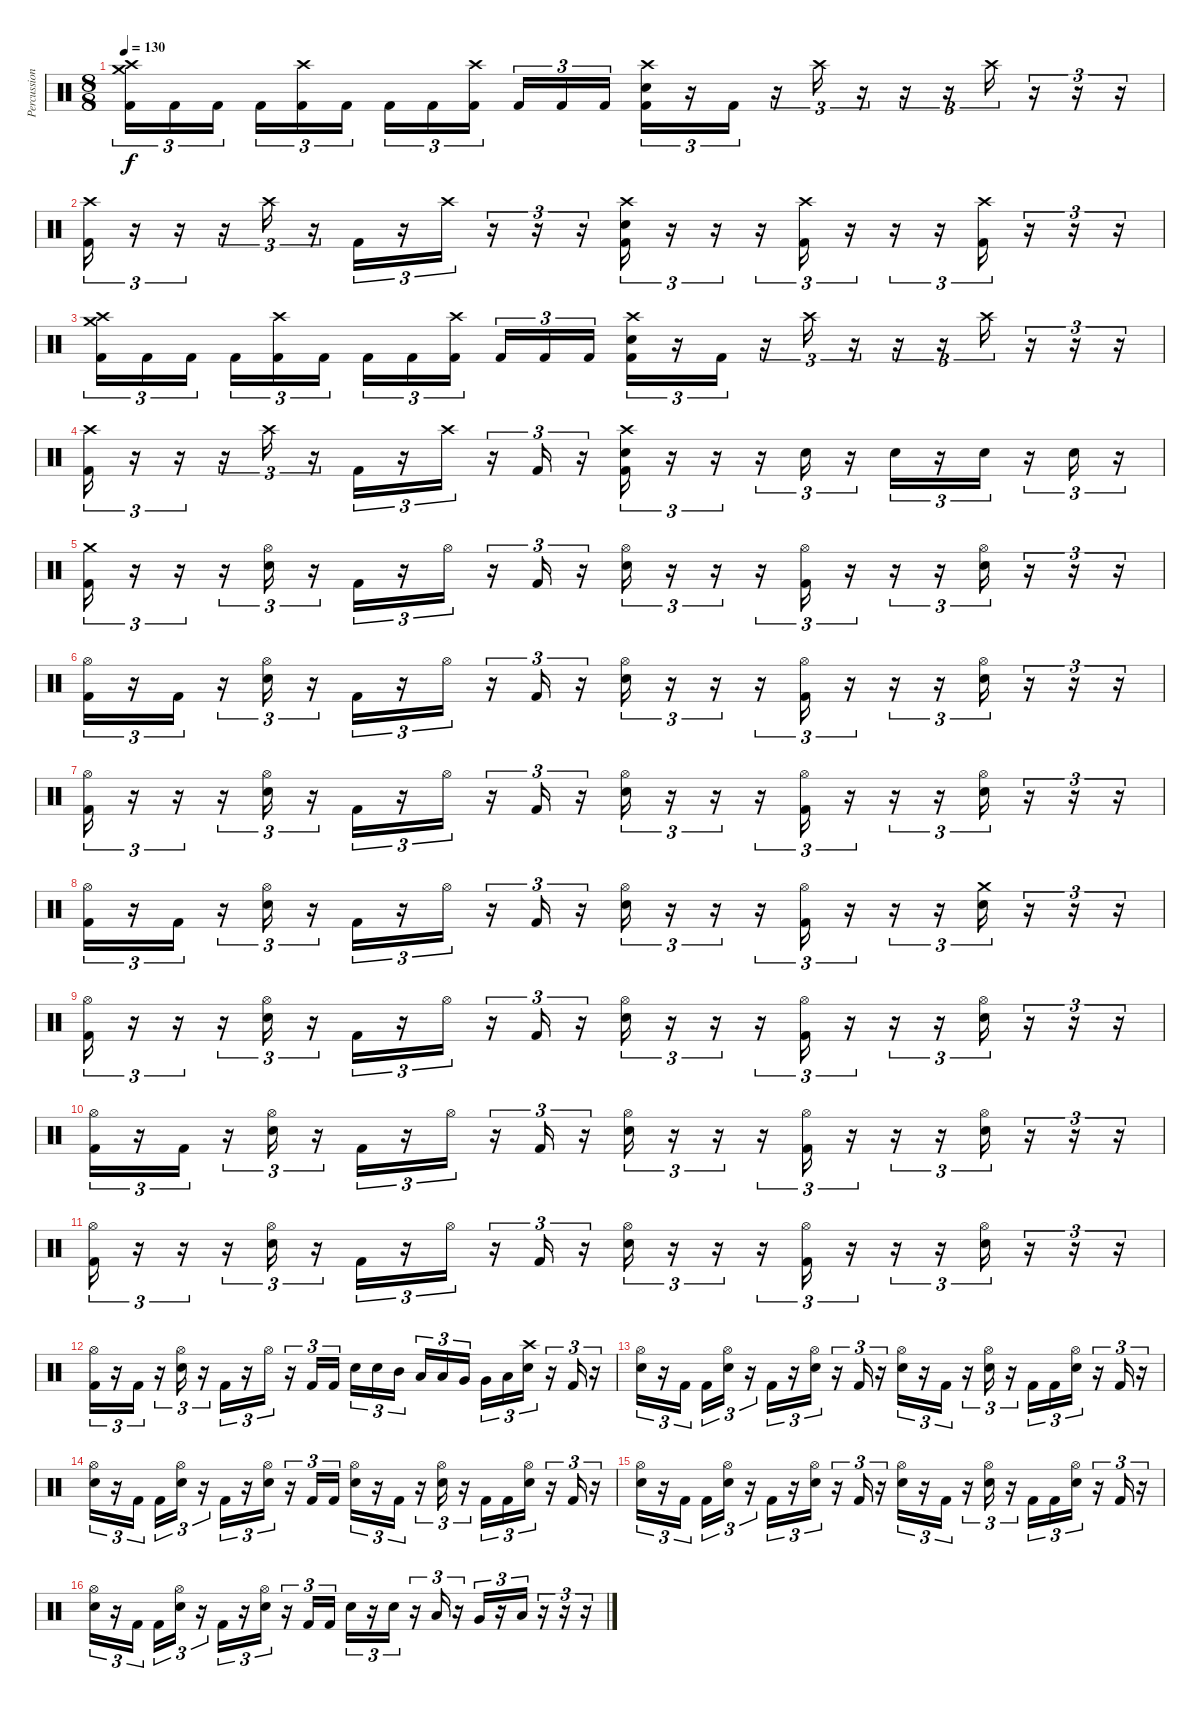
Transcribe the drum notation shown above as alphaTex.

\track ("Percussion" "Percussion") {instrument percussion}
\staff {score}
\articulation defaults
\ts (8 8)
\tempo 130
\clef neutral
\ks c
("Crash high (hit)" "Crash medium (hit)" "Kick (hit) 2").16{tu (3 2) dy f} "Kick (hit) 2".16{tu (3 2)} "Kick (hit) 2".16{tu (3 2)} "Kick (hit) 2".16{tu (3 2)} ("Crash high (hit)" "Kick (hit) 2").16{tu (3 2)} "Kick (hit) 2".16{tu (3 2)} "Kick (hit) 2".16{tu (3 2)} "Kick (hit) 2".16{tu (3 2)} ("Crash high (hit)" "Kick (hit) 2").16{tu (3 2)} "Kick (hit) 2".16{tu (3 2)} "Kick (hit) 2".16{tu (3 2)} "Kick (hit) 2".16{tu (3 2)} ("Crash high (hit)" "Snare (hit) 2" "Kick (hit) 2").16{tu (3 2)} r.16{tu (3 2)} "Kick (hit) 2".16{tu (3 2)} r.16{tu (3 2)} "Crash high (hit)".16{tu (3 2)} r.16{tu (3 2)} r.16{tu (3 2)} r.16{tu (3 2)} "Crash high (hit)".16{tu (3 2)} r.16{tu (3 2)} r.16{tu (3 2)} r.16{tu (3 2)} |
("Crash high (hit)" "Kick (hit) 2").16{tu (3 2)} r.16{tu (3 2)} r.16{tu (3 2)} r.16{tu (3 2)} "Crash high (hit)".16{tu (3 2)} r.16{tu (3 2)} "Kick (hit) 2".16{tu (3 2)} r.16{tu (3 2)} "Crash high (hit)".16{tu (3 2)} r.16{tu (3 2)} r.16{tu (3 2)} r.16{tu (3 2)} ("Crash high (hit)" "Snare (hit) 2" "Kick (hit) 2").16{tu (3 2)} r.16{tu (3 2)} r.16{tu (3 2)} r.16{tu (3 2)} ("Crash high (hit)" "Kick (hit) 2").16{tu (3 2)} r.16{tu (3 2)} r.16{tu (3 2)} r.16{tu (3 2)} ("Crash high (hit)" "Kick (hit) 2").16{tu (3 2)} r.16{tu (3 2)} r.16{tu (3 2)} r.16{tu (3 2)} |
("Crash high (hit)" "Crash medium (hit)" "Kick (hit) 2").16{tu (3 2)} "Kick (hit) 2".16{tu (3 2)} "Kick (hit) 2".16{tu (3 2)} "Kick (hit) 2".16{tu (3 2)} ("Crash high (hit)" "Kick (hit) 2").16{tu (3 2)} "Kick (hit) 2".16{tu (3 2)} "Kick (hit) 2".16{tu (3 2)} "Kick (hit) 2".16{tu (3 2)} ("Crash high (hit)" "Kick (hit) 2").16{tu (3 2)} "Kick (hit) 2".16{tu (3 2)} "Kick (hit) 2".16{tu (3 2)} "Kick (hit) 2".16{tu (3 2)} ("Crash high (hit)" "Snare (hit) 2" "Kick (hit) 2").16{tu (3 2)} r.16{tu (3 2)} "Kick (hit) 2".16{tu (3 2)} r.16{tu (3 2)} "Crash high (hit)".16{tu (3 2)} r.16{tu (3 2)} r.16{tu (3 2)} r.16{tu (3 2)} "Crash high (hit)".16{tu (3 2)} r.16{tu (3 2)} r.16{tu (3 2)} r.16{tu (3 2)} |
("Crash high (hit)" "Kick (hit) 2").16{tu (3 2)} r.16{tu (3 2)} r.16{tu (3 2)} r.16{tu (3 2)} "Crash high (hit)".16{tu (3 2)} r.16{tu (3 2)} "Kick (hit) 2".16{tu (3 2)} r.16{tu (3 2)} "Crash high (hit)".16{tu (3 2)} r.16{tu (3 2)} "Kick (hit) 2".16{tu (3 2)} r.16{tu (3 2)} ("Crash high (hit)" "Snare (hit) 2" "Kick (hit) 2").16{tu (3 2)} r.16{tu (3 2)} r.16{tu (3 2)} r.16{tu (3 2)} "Snare (hit) 2".16{tu (3 2)} r.16{tu (3 2)} "Snare (hit) 2".16{tu (3 2)} r.16{tu (3 2)} "Snare (hit) 2".16{tu (3 2)} r.16{tu (3 2)} "Snare (hit) 2".16{tu (3 2)} r.16{tu (3 2)} |
("Crash medium (hit)" "Kick (hit) 2").16{tu (3 2)} r.16{tu (3 2)} r.16{tu (3 2)} r.16{tu (3 2)} ("Hi-Hat (open)" "Snare (hit) 2").16{tu (3 2)} r.16{tu (3 2)} "Kick (hit) 2".16{tu (3 2)} r.16{tu (3 2)} "Hi-Hat (open)".16{tu (3 2)} r.16{tu (3 2)} "Kick (hit) 2".16{tu (3 2)} r.16{tu (3 2)} ("Hi-Hat (open)" "Snare (hit) 2").16{tu (3 2)} r.16{tu (3 2)} r.16{tu (3 2)} r.16{tu (3 2)} ("Hi-Hat (open)" "Kick (hit) 2").16{tu (3 2)} r.16{tu (3 2)} r.16{tu (3 2)} r.16{tu (3 2)} ("Hi-Hat (open)" "Snare (hit) 2").16{tu (3 2)} r.16{tu (3 2)} r.16{tu (3 2)} r.16{tu (3 2)} |
("Hi-Hat (open)" "Kick (hit) 2").16{tu (3 2)} r.16{tu (3 2)} "Kick (hit) 2".16{tu (3 2)} r.16{tu (3 2)} ("Hi-Hat (open)" "Snare (hit) 2").16{tu (3 2)} r.16{tu (3 2)} "Kick (hit) 2".16{tu (3 2)} r.16{tu (3 2)} "Hi-Hat (open)".16{tu (3 2)} r.16{tu (3 2)} "Kick (hit) 2".16{tu (3 2)} r.16{tu (3 2)} ("Hi-Hat (open)" "Snare (hit) 2").16{tu (3 2)} r.16{tu (3 2)} r.16{tu (3 2)} r.16{tu (3 2)} ("Hi-Hat (open)" "Kick (hit) 2").16{tu (3 2)} r.16{tu (3 2)} r.16{tu (3 2)} r.16{tu (3 2)} ("Hi-Hat (open)" "Snare (hit) 2").16{tu (3 2)} r.16{tu (3 2)} r.16{tu (3 2)} r.16{tu (3 2)} |
("Hi-Hat (open)" "Kick (hit) 2").16{tu (3 2)} r.16{tu (3 2)} r.16{tu (3 2)} r.16{tu (3 2)} ("Hi-Hat (open)" "Snare (hit) 2").16{tu (3 2)} r.16{tu (3 2)} "Kick (hit) 2".16{tu (3 2)} r.16{tu (3 2)} "Hi-Hat (open)".16{tu (3 2)} r.16{tu (3 2)} "Kick (hit) 2".16{tu (3 2)} r.16{tu (3 2)} ("Hi-Hat (open)" "Snare (hit) 2").16{tu (3 2)} r.16{tu (3 2)} r.16{tu (3 2)} r.16{tu (3 2)} ("Hi-Hat (open)" "Kick (hit) 2").16{tu (3 2)} r.16{tu (3 2)} r.16{tu (3 2)} r.16{tu (3 2)} ("Hi-Hat (open)" "Snare (hit) 2").16{tu (3 2)} r.16{tu (3 2)} r.16{tu (3 2)} r.16{tu (3 2)} |
("Hi-Hat (open)" "Kick (hit) 2").16{tu (3 2)} r.16{tu (3 2)} "Kick (hit) 2".16{tu (3 2)} r.16{tu (3 2)} ("Hi-Hat (open)" "Snare (hit) 2").16{tu (3 2)} r.16{tu (3 2)} "Kick (hit) 2".16{tu (3 2)} r.16{tu (3 2)} "Hi-Hat (open)".16{tu (3 2)} r.16{tu (3 2)} "Kick (hit) 2".16{tu (3 2)} r.16{tu (3 2)} ("Hi-Hat (open)" "Snare (hit) 2").16{tu (3 2)} r.16{tu (3 2)} r.16{tu (3 2)} r.16{tu (3 2)} ("Hi-Hat (open)" "Kick (hit) 2").16{tu (3 2)} r.16{tu (3 2)} r.16{tu (3 2)} r.16{tu (3 2)} ("Crash medium (hit)" "Snare (hit) 2").16{tu (3 2)} r.16{tu (3 2)} r.16{tu (3 2)} r.16{tu (3 2)} |
("Hi-Hat (open)" "Kick (hit) 2").16{tu (3 2)} r.16{tu (3 2)} r.16{tu (3 2)} r.16{tu (3 2)} ("Hi-Hat (open)" "Snare (hit) 2").16{tu (3 2)} r.16{tu (3 2)} "Kick (hit) 2".16{tu (3 2)} r.16{tu (3 2)} "Hi-Hat (open)".16{tu (3 2)} r.16{tu (3 2)} "Kick (hit) 2".16{tu (3 2)} r.16{tu (3 2)} ("Hi-Hat (open)" "Snare (hit) 2").16{tu (3 2)} r.16{tu (3 2)} r.16{tu (3 2)} r.16{tu (3 2)} ("Hi-Hat (open)" "Kick (hit) 2").16{tu (3 2)} r.16{tu (3 2)} r.16{tu (3 2)} r.16{tu (3 2)} ("Hi-Hat (open)" "Snare (hit) 2").16{tu (3 2)} r.16{tu (3 2)} r.16{tu (3 2)} r.16{tu (3 2)} |
("Hi-Hat (open)" "Kick (hit) 2").16{tu (3 2)} r.16{tu (3 2)} "Kick (hit) 2".16{tu (3 2)} r.16{tu (3 2)} ("Hi-Hat (open)" "Snare (hit) 2").16{tu (3 2)} r.16{tu (3 2)} "Kick (hit) 2".16{tu (3 2)} r.16{tu (3 2)} "Hi-Hat (open)".16{tu (3 2)} r.16{tu (3 2)} "Kick (hit) 2".16{tu (3 2)} r.16{tu (3 2)} ("Hi-Hat (open)" "Snare (hit) 2").16{tu (3 2)} r.16{tu (3 2)} r.16{tu (3 2)} r.16{tu (3 2)} ("Hi-Hat (open)" "Kick (hit) 2").16{tu (3 2)} r.16{tu (3 2)} r.16{tu (3 2)} r.16{tu (3 2)} ("Hi-Hat (open)" "Snare (hit) 2").16{tu (3 2)} r.16{tu (3 2)} r.16{tu (3 2)} r.16{tu (3 2)} |
("Hi-Hat (open)" "Kick (hit) 2").16{tu (3 2)} r.16{tu (3 2)} r.16{tu (3 2)} r.16{tu (3 2)} ("Hi-Hat (open)" "Snare (hit) 2").16{tu (3 2)} r.16{tu (3 2)} "Kick (hit) 2".16{tu (3 2)} r.16{tu (3 2)} "Hi-Hat (open)".16{tu (3 2)} r.16{tu (3 2)} "Kick (hit) 2".16{tu (3 2)} r.16{tu (3 2)} ("Hi-Hat (open)" "Snare (hit) 2").16{tu (3 2)} r.16{tu (3 2)} r.16{tu (3 2)} r.16{tu (3 2)} ("Hi-Hat (open)" "Kick (hit) 2").16{tu (3 2)} r.16{tu (3 2)} r.16{tu (3 2)} r.16{tu (3 2)} ("Hi-Hat (open)" "Snare (hit) 2").16{tu (3 2)} r.16{tu (3 2)} r.16{tu (3 2)} r.16{tu (3 2)} |
("Hi-Hat (open)" "Kick (hit) 2").16{tu (3 2)} r.16{tu (3 2)} "Kick (hit) 2".16{tu (3 2)} r.16{tu (3 2)} ("Hi-Hat (open)" "Snare (hit) 2").16{tu (3 2)} r.16{tu (3 2)} "Kick (hit) 2".16{tu (3 2)} r.16{tu (3 2)} "Hi-Hat (open)".16{tu (3 2)} r.16{tu (3 2)} "Kick (hit) 2".16{tu (3 2)} "Kick (hit) 2".16{tu (3 2)} "Snare (hit) 2".16{tu (3 2)} "Snare (hit) 2".16{tu (3 2)} "Mid Tom (hit)".16{tu (3 2)} "Low Tom (hit)".16{tu (3 2)} "Low Tom (hit)".16{tu (3 2)} "Very Low Tom (hit)".16{tu (3 2)} "Very Low Tom (hit)".16{tu (3 2)} "Low Floor Tom (hit)".16{tu (3 2)} ("Crash high (hit)" "Snare (hit) 2").16{tu (3 2)} r.16{tu (3 2)} "Kick (hit) 2".16{tu (3 2)} r.16{tu (3 2)} |
("Hi-Hat (open)" "Snare (hit) 2").16{tu (3 2)} r.16{tu (3 2)} "Kick (hit) 2".16{tu (3 2)} "Kick (hit) 2".16{tu (3 2)} ("Hi-Hat (open)" "Snare (hit) 2").16{tu (3 2)} r.16{tu (3 2)} "Kick (hit) 2".16{tu (3 2)} r.16{tu (3 2)} ("Hi-Hat (open)" "Snare (hit) 2").16{tu (3 2)} r.16{tu (3 2)} "Kick (hit) 2".16{tu (3 2)} r.16{tu (3 2)} ("Hi-Hat (open)" "Snare (hit) 2").16{tu (3 2)} r.16{tu (3 2)} "Kick (hit) 2".16{tu (3 2)} r.16{tu (3 2)} ("Hi-Hat (open)" "Snare (hit) 2").16{tu (3 2)} r.16{tu (3 2)} "Kick (hit) 2".16{tu (3 2)} "Kick (hit) 2".16{tu (3 2)} ("Hi-Hat (open)" "Snare (hit) 2").16{tu (3 2)} r.16{tu (3 2)} "Kick (hit) 2".16{tu (3 2)} r.16{tu (3 2)} |
("Hi-Hat (open)" "Snare (hit) 2").16{tu (3 2)} r.16{tu (3 2)} "Kick (hit) 2".16{tu (3 2)} "Kick (hit) 2".16{tu (3 2)} ("Hi-Hat (open)" "Snare (hit) 2").16{tu (3 2)} r.16{tu (3 2)} "Kick (hit) 2".16{tu (3 2)} r.16{tu (3 2)} ("Hi-Hat (open)" "Snare (hit) 2").16{tu (3 2)} r.16{tu (3 2)} "Kick (hit) 2".16{tu (3 2)} "Kick (hit) 2".16{tu (3 2)} ("Hi-Hat (open)" "Snare (hit) 2").16{tu (3 2)} r.16{tu (3 2)} "Kick (hit) 2".16{tu (3 2)} r.16{tu (3 2)} ("Hi-Hat (open)" "Snare (hit) 2").16{tu (3 2)} r.16{tu (3 2)} "Kick (hit) 2".16{tu (3 2)} "Kick (hit) 2".16{tu (3 2)} ("Hi-Hat (open)" "Snare (hit) 2").16{tu (3 2)} r.16{tu (3 2)} "Kick (hit) 2".16{tu (3 2)} r.16{tu (3 2)} |
("Hi-Hat (open)" "Snare (hit) 2").16{tu (3 2)} r.16{tu (3 2)} "Kick (hit) 2".16{tu (3 2)} "Kick (hit) 2".16{tu (3 2)} ("Hi-Hat (open)" "Snare (hit) 2").16{tu (3 2)} r.16{tu (3 2)} "Kick (hit) 2".16{tu (3 2)} r.16{tu (3 2)} ("Hi-Hat (open)" "Snare (hit) 2").16{tu (3 2)} r.16{tu (3 2)} "Kick (hit) 2".16{tu (3 2)} r.16{tu (3 2)} ("Hi-Hat (open)" "Snare (hit) 2").16{tu (3 2)} r.16{tu (3 2)} "Kick (hit) 2".16{tu (3 2)} r.16{tu (3 2)} ("Hi-Hat (open)" "Snare (hit) 2").16{tu (3 2)} r.16{tu (3 2)} "Kick (hit) 2".16{tu (3 2)} "Kick (hit) 2".16{tu (3 2)} ("Hi-Hat (open)" "Snare (hit) 2").16{tu (3 2)} r.16{tu (3 2)} "Kick (hit) 2".16{tu (3 2)} r.16{tu (3 2)} |
("Hi-Hat (open)" "Snare (hit) 2").16{tu (3 2)} r.16{tu (3 2)} "Kick (hit) 2".16{tu (3 2)} "Kick (hit) 2".16{tu (3 2)} ("Hi-Hat (open)" "Snare (hit) 2").16{tu (3 2)} r.16{tu (3 2)} "Kick (hit) 2".16{tu (3 2)} r.16{tu (3 2)} ("Hi-Hat (open)" "Snare (hit) 2").16{tu (3 2)} r.16{tu (3 2)} "Kick (hit) 2".16{tu (3 2)} "Kick (hit) 2".16{tu (3 2)} "Snare (hit) 2".16{tu (3 2)} r.16{tu (3 2)} "Snare (hit) 2".16{tu (3 2)} r.16{tu (3 2)} "Low Tom (hit)".16{tu (3 2)} r.16{tu (3 2)} "Very Low Tom (hit)".16{tu (3 2)} r.16{tu (3 2)} "Low Floor Tom (hit)".16{tu (3 2)} r.16{tu (3 2)} r.16{tu (3 2)} r.16{tu (3 2)}
